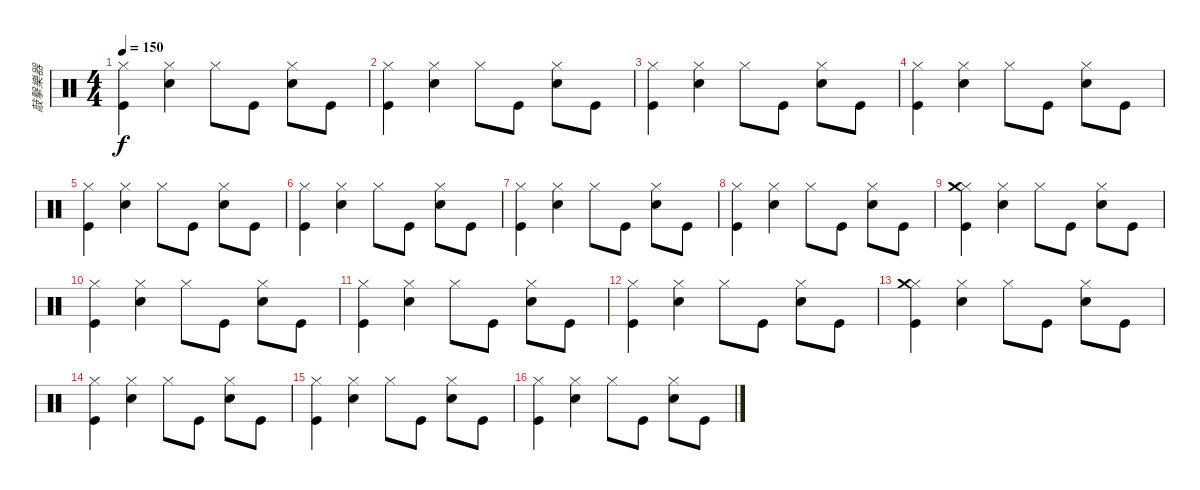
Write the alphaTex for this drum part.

\track ("敲擊樂器" "敲擊樂器") {instrument percussion}
\staff {score}
\articulation defaults
\ts (4 4)
\tempo 150
\clef neutral
\ks c
("Kick (hit)" "Hi-Hat (closed)").4{dy f} ("Snare (hit) 2" "Hi-Hat (closed)").4 "Hi-Hat (closed)".8 "Kick (hit)".8 ("Snare (hit) 2" "Hi-Hat (closed)").8 "Kick (hit)".8 |
("Kick (hit)" "Hi-Hat (closed)").4 ("Snare (hit) 2" "Hi-Hat (closed)").4 "Hi-Hat (closed)".8 "Kick (hit)".8 ("Snare (hit) 2" "Hi-Hat (closed)").8 "Kick (hit)".8 |
("Kick (hit)" "Hi-Hat (closed)").4 ("Snare (hit) 2" "Hi-Hat (closed)").4 "Hi-Hat (closed)".8 "Kick (hit)".8 ("Snare (hit) 2" "Hi-Hat (closed)").8 "Kick (hit)".8 |
("Kick (hit)" "Hi-Hat (closed)").4 ("Snare (hit) 2" "Hi-Hat (closed)").4 "Hi-Hat (closed)".8 "Kick (hit)".8 ("Snare (hit) 2" "Hi-Hat (closed)").8 "Kick (hit)".8 |
("Kick (hit)" "Hi-Hat (closed)").4 ("Snare (hit) 2" "Hi-Hat (closed)").4 "Hi-Hat (closed)".8 "Kick (hit)".8 ("Snare (hit) 2" "Hi-Hat (closed)").8 "Kick (hit)".8 |
("Kick (hit)" "Hi-Hat (closed)").4 ("Snare (hit) 2" "Hi-Hat (closed)").4 "Hi-Hat (closed)".8 "Kick (hit)".8 ("Snare (hit) 2" "Hi-Hat (closed)").8 "Kick (hit)".8 |
("Kick (hit)" "Hi-Hat (closed)").4 ("Snare (hit) 2" "Hi-Hat (closed)").4 "Hi-Hat (closed)".8 "Kick (hit)".8 ("Snare (hit) 2" "Hi-Hat (closed)").8 "Kick (hit)".8 |
("Kick (hit)" "Hi-Hat (closed)").4 ("Snare (hit) 2" "Hi-Hat (closed)").4 "Hi-Hat (closed)".8 "Kick (hit)".8 ("Snare (hit) 2" "Hi-Hat (closed)").8 "Kick (hit)".8 |
("Kick (hit)" "Hi-Hat (closed)" "Crash medium (hit)").4 ("Snare (hit) 2" "Hi-Hat (closed)").4 "Hi-Hat (closed)".8 "Kick (hit)".8 ("Snare (hit) 2" "Hi-Hat (closed)").8 "Kick (hit)".8 |
("Kick (hit)" "Hi-Hat (closed)").4 ("Snare (hit) 2" "Hi-Hat (closed)").4 "Hi-Hat (closed)".8 "Kick (hit)".8 ("Snare (hit) 2" "Hi-Hat (closed)").8 "Kick (hit)".8 |
("Kick (hit)" "Hi-Hat (closed)").4 ("Snare (hit) 2" "Hi-Hat (closed)").4 "Hi-Hat (closed)".8 "Kick (hit)".8 ("Snare (hit) 2" "Hi-Hat (closed)").8 "Kick (hit)".8 |
("Kick (hit)" "Hi-Hat (closed)").4 ("Snare (hit) 2" "Hi-Hat (closed)").4 "Hi-Hat (closed)".8 "Kick (hit)".8 ("Snare (hit) 2" "Hi-Hat (closed)").8 "Kick (hit)".8 |
("Kick (hit)" "Hi-Hat (closed)" "Crash medium (hit)").4 ("Snare (hit) 2" "Hi-Hat (closed)").4 "Hi-Hat (closed)".8 "Kick (hit)".8 ("Snare (hit) 2" "Hi-Hat (closed)").8 "Kick (hit)".8 |
("Kick (hit)" "Hi-Hat (closed)").4 ("Snare (hit) 2" "Hi-Hat (closed)").4 "Hi-Hat (closed)".8 "Kick (hit)".8 ("Snare (hit) 2" "Hi-Hat (closed)").8 "Kick (hit)".8 |
("Kick (hit)" "Hi-Hat (closed)").4 ("Snare (hit) 2" "Hi-Hat (closed)").4 "Hi-Hat (closed)".8 "Kick (hit)".8 ("Snare (hit) 2" "Hi-Hat (closed)").8 "Kick (hit)".8 |
("Kick (hit)" "Hi-Hat (closed)").4 ("Snare (hit) 2" "Hi-Hat (closed)").4 "Hi-Hat (closed)".8 "Kick (hit)".8 ("Snare (hit) 2" "Hi-Hat (closed)").8 "Kick (hit)".8
